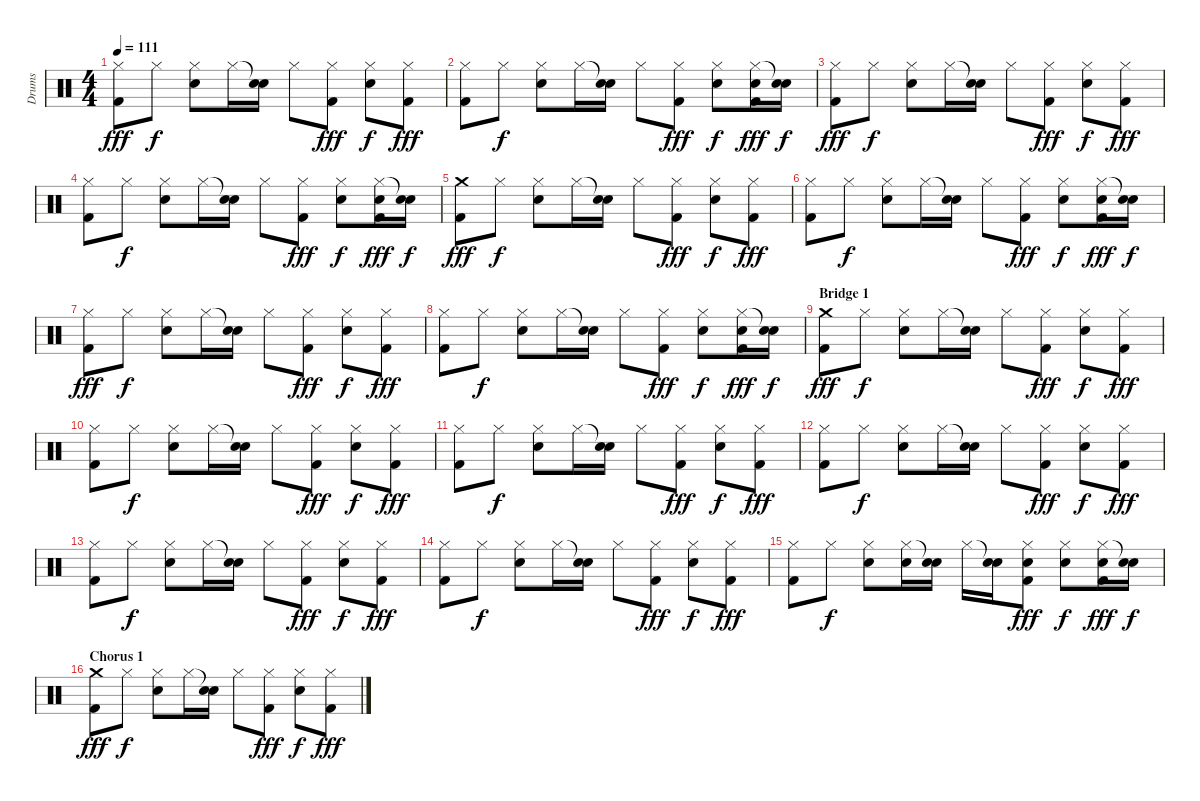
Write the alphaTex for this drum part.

\track ("Drums" "Drums") {instrument percussion}
\staff {score}
\articulation defaults
\ts (4 4)
\tempo 111
\clef neutral
\ks c
("Hi-Hat (closed)" "Kick (hit) 2").8{dy fff} "Hi-Hat (closed)".8{dy f} ("Hi-Hat (closed)" "Snare (hit) 2").8 "Hi-Hat (closed)".16 ("Snare (hit)"{t} "Snare (hit) 2").16 "Hi-Hat (closed)".8 ("Hi-Hat (closed)" "Kick (hit) 2").8{dy fff} ("Hi-Hat (closed)" "Snare (hit) 2").8{dy f} ("Hi-Hat (closed)" "Kick (hit) 2").8{dy fff} |
("Hi-Hat (closed)" "Kick (hit) 2").8 "Hi-Hat (closed)".8{dy f} ("Hi-Hat (closed)" "Snare (hit) 2").8 "Hi-Hat (closed)".16 ("Snare (hit)"{t} "Snare (hit) 2").16 "Hi-Hat (closed)".8 ("Hi-Hat (closed)" "Kick (hit) 2").8{dy fff} ("Hi-Hat (closed)" "Snare (hit) 2").8{dy f} ("Hi-Hat (closed)" "Snare (hit) 2" "Kick (hit) 2").16{dy fff} ("Snare (hit)"{t} "Snare (hit) 2").16{dy f} |
("Hi-Hat (closed)" "Kick (hit) 2").8{dy fff} "Hi-Hat (closed)".8{dy f} ("Hi-Hat (closed)" "Snare (hit) 2").8 "Hi-Hat (closed)".16 ("Snare (hit)"{t} "Snare (hit) 2").16 "Hi-Hat (closed)".8 ("Hi-Hat (closed)" "Kick (hit) 2").8{dy fff} ("Hi-Hat (closed)" "Snare (hit) 2").8{dy f} ("Hi-Hat (closed)" "Kick (hit) 2").8{dy fff} |
("Hi-Hat (closed)" "Kick (hit) 2").8 "Hi-Hat (closed)".8{dy f} ("Hi-Hat (closed)" "Snare (hit) 2").8 "Hi-Hat (closed)".16 ("Snare (hit)"{t} "Snare (hit) 2").16 "Hi-Hat (closed)".8 ("Hi-Hat (closed)" "Kick (hit) 2").8{dy fff} ("Hi-Hat (closed)" "Snare (hit) 2").8{dy f} ("Hi-Hat (closed)" "Snare (hit) 2" "Kick (hit) 2").16{dy fff} ("Snare (hit)"{t} "Snare (hit) 2").16{dy f} |
("Crash medium (hit)" "Kick (hit) 2").8{dy fff} "Hi-Hat (closed)".8{dy f} ("Hi-Hat (closed)" "Snare (hit) 2").8 "Hi-Hat (closed)".16 ("Snare (hit)"{t} "Snare (hit) 2").16 "Hi-Hat (closed)".8 ("Hi-Hat (closed)" "Kick (hit) 2").8{dy fff} ("Hi-Hat (closed)" "Snare (hit) 2").8{dy f} ("Hi-Hat (closed)" "Kick (hit) 2").8{dy fff} |
("Hi-Hat (closed)" "Kick (hit) 2").8 "Hi-Hat (closed)".8{dy f} ("Hi-Hat (closed)" "Snare (hit) 2").8 "Hi-Hat (closed)".16 ("Snare (hit)"{t} "Snare (hit) 2").16 "Hi-Hat (closed)".8 ("Hi-Hat (closed)" "Kick (hit) 2").8{dy fff} ("Hi-Hat (closed)" "Snare (hit) 2").8{dy f} ("Hi-Hat (closed)" "Snare (hit) 2" "Kick (hit) 2").16{dy fff} ("Snare (hit)"{t} "Snare (hit) 2").16{dy f} |
("Hi-Hat (closed)" "Kick (hit) 2").8{dy fff} "Hi-Hat (closed)".8{dy f} ("Hi-Hat (closed)" "Snare (hit) 2").8 "Hi-Hat (closed)".16 ("Snare (hit)"{t} "Snare (hit) 2").16 "Hi-Hat (closed)".8 ("Hi-Hat (closed)" "Kick (hit) 2").8{dy fff} ("Hi-Hat (closed)" "Snare (hit) 2").8{dy f} ("Hi-Hat (closed)" "Kick (hit) 2").8{dy fff} |
("Hi-Hat (closed)" "Kick (hit) 2").8 "Hi-Hat (closed)".8{dy f} ("Hi-Hat (closed)" "Snare (hit) 2").8 "Hi-Hat (closed)".16 ("Snare (hit)"{t} "Snare (hit) 2").16 "Hi-Hat (closed)".8 ("Hi-Hat (closed)" "Kick (hit) 2").8{dy fff} ("Hi-Hat (closed)" "Snare (hit) 2").8{dy f} ("Hi-Hat (closed)" "Snare (hit) 2" "Kick (hit) 2").16{dy fff} ("Snare (hit)"{t} "Snare (hit) 2").16{dy f} |
\section ("" "Bridge 1")
("Crash medium (hit)" "Kick (hit) 2").8{dy fff} "Hi-Hat (closed)".8{dy f} ("Hi-Hat (closed)" "Snare (hit) 2").8 "Hi-Hat (closed)".16 ("Snare (hit)"{t} "Snare (hit) 2").16 "Hi-Hat (closed)".8 ("Hi-Hat (closed)" "Kick (hit) 2").8{dy fff} ("Hi-Hat (closed)" "Snare (hit) 2").8{dy f} ("Hi-Hat (closed)" "Kick (hit) 2").8{dy fff} |
("Hi-Hat (closed)" "Kick (hit) 2").8 "Hi-Hat (closed)".8{dy f} ("Hi-Hat (closed)" "Snare (hit) 2").8 "Hi-Hat (closed)".16 ("Snare (hit)"{t} "Snare (hit) 2").16 "Hi-Hat (closed)".8 ("Hi-Hat (closed)" "Kick (hit) 2").8{dy fff} ("Hi-Hat (closed)" "Snare (hit) 2").8{dy f} ("Hi-Hat (closed)" "Kick (hit) 2").8{dy fff} |
("Hi-Hat (closed)" "Kick (hit) 2").8 "Hi-Hat (closed)".8{dy f} ("Hi-Hat (closed)" "Snare (hit) 2").8 "Hi-Hat (closed)".16 ("Snare (hit)"{t} "Snare (hit) 2").16 "Hi-Hat (closed)".8 ("Hi-Hat (closed)" "Kick (hit) 2").8{dy fff} ("Hi-Hat (closed)" "Snare (hit) 2").8{dy f} ("Hi-Hat (closed)" "Kick (hit) 2").8{dy fff} |
("Hi-Hat (closed)" "Kick (hit) 2").8 "Hi-Hat (closed)".8{dy f} ("Hi-Hat (closed)" "Snare (hit) 2").8 "Hi-Hat (closed)".16 ("Snare (hit)"{t} "Snare (hit) 2").16 "Hi-Hat (closed)".8 ("Hi-Hat (closed)" "Kick (hit) 2").8{dy fff} ("Hi-Hat (closed)" "Snare (hit) 2").8{dy f} ("Hi-Hat (closed)" "Kick (hit) 2").8{dy fff} |
("Hi-Hat (closed)" "Kick (hit) 2").8 "Hi-Hat (closed)".8{dy f} ("Hi-Hat (closed)" "Snare (hit) 2").8 "Hi-Hat (closed)".16 ("Snare (hit)"{t} "Snare (hit) 2").16 "Hi-Hat (closed)".8 ("Hi-Hat (closed)" "Kick (hit) 2").8{dy fff} ("Hi-Hat (closed)" "Snare (hit) 2").8{dy f} ("Hi-Hat (closed)" "Kick (hit) 2").8{dy fff} |
("Hi-Hat (closed)" "Kick (hit) 2").8 "Hi-Hat (closed)".8{dy f} ("Hi-Hat (closed)" "Snare (hit) 2").8 "Hi-Hat (closed)".16 ("Snare (hit)"{t} "Snare (hit) 2").16 "Hi-Hat (closed)".8 ("Hi-Hat (closed)" "Kick (hit) 2").8{dy fff} ("Hi-Hat (closed)" "Snare (hit) 2").8{dy f} ("Hi-Hat (closed)" "Kick (hit) 2").8{dy fff} |
("Hi-Hat (closed)" "Kick (hit) 2").8 "Hi-Hat (closed)".8{dy f} ("Hi-Hat (closed)" "Snare (hit) 2").8 ("Hi-Hat (closed)" "Snare (hit) 2").16 ("Snare (hit)"{t} "Snare (hit) 2").16 "Hi-Hat (closed)".16 ("Snare (hit)"{t} "Snare (hit) 2").16 ("Hi-Hat (closed)" "Snare (hit) 2" "Kick (hit) 2").8{dy fff} ("Hi-Hat (closed)" "Snare (hit) 2").8{dy f} ("Hi-Hat (closed)" "Snare (hit) 2" "Kick (hit) 2").16{dy fff} ("Snare (hit)"{t} "Snare (hit) 2").16{dy f} |
\section ("" "Chorus 1")
("Crash medium (hit)" "Kick (hit) 2").8{dy fff} "Hi-Hat (closed)".8{dy f} ("Hi-Hat (closed)" "Snare (hit) 2").8 "Hi-Hat (closed)".16 ("Snare (hit)"{t} "Snare (hit) 2").16 "Hi-Hat (closed)".8 ("Hi-Hat (closed)" "Kick (hit) 2").8{dy fff} ("Hi-Hat (closed)" "Snare (hit) 2").8{dy f} ("Hi-Hat (closed)" "Kick (hit) 2").8{dy fff}
